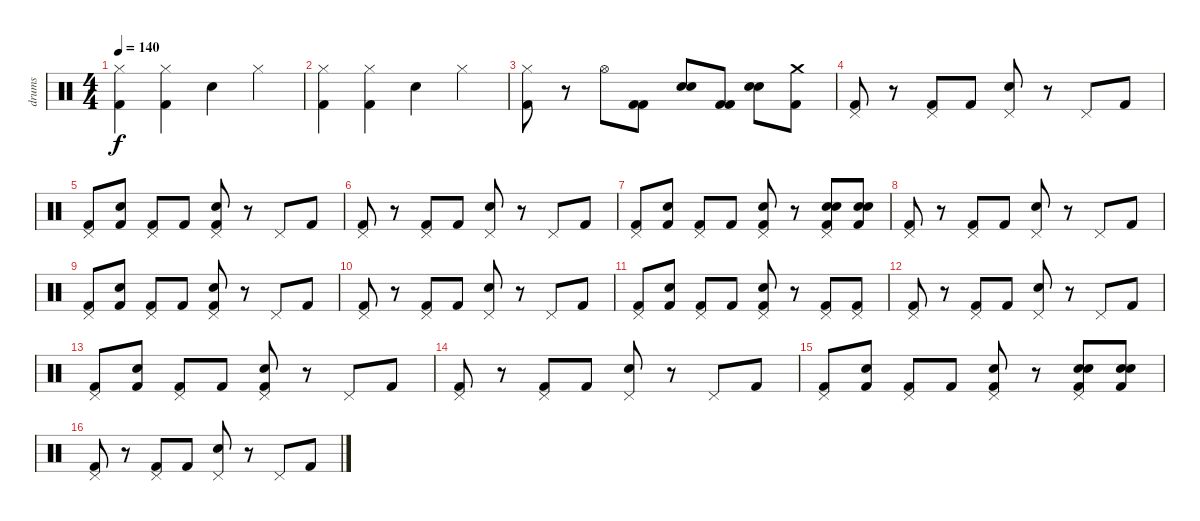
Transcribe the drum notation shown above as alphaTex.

\track ("drums" "drums") {instrument percussion}
\staff {score}
\articulation defaults
\ts (4 4)
\tempo 140
\clef neutral
\ks c
("Hi-Hat (closed)" "Kick (hit) 2").4{dy f} ("Hi-Hat (closed)" "Kick (hit) 2").4 "Snare (hit) 2".4 "Hi-Hat (closed)".4 |
("Hi-Hat (closed)" "Kick (hit) 2").4 ("Hi-Hat (closed)" "Kick (hit) 2").4 "Snare (hit) 2".4 "Hi-Hat (closed)".4 |
("Hi-Hat (closed)" "Kick (hit) 2").8 r.8 "Hi-Hat (open)".8 ("Kick (hit) 2" "Kick (hit) 2").8 ("Snare (hit) 2" "Snare (hit) 2").8 ("Kick (hit) 2" "Kick (hit) 2").8 ("Snare (hit) 2" "Snare (hit) 2").8 ("Kick (hit) 2" "Crash medium (hit)").8 |
("Pedal Hi-Hat (hit)" "Kick (hit) 2").8 r.8 ("Pedal Hi-Hat (hit)" "Kick (hit) 2").8 "Kick (hit) 2".8 ("Pedal Hi-Hat (hit)" "Snare (hit) 2").8 r.8 "Pedal Hi-Hat (hit)".8 "Kick (hit) 2".8 |
("Kick (hit) 2" "Pedal Hi-Hat (hit)").8 ("Snare (hit) 2" "Kick (hit) 2").8 ("Kick (hit) 2" "Pedal Hi-Hat (hit)").8 "Kick (hit) 2".8 ("Snare (hit) 2" "Kick (hit) 2" "Pedal Hi-Hat (hit)").8 r.8 "Pedal Hi-Hat (hit)".8 "Kick (hit) 2".8 |
("Pedal Hi-Hat (hit)" "Kick (hit) 2").8 r.8 ("Pedal Hi-Hat (hit)" "Kick (hit) 2").8 "Kick (hit) 2".8 ("Pedal Hi-Hat (hit)" "Snare (hit) 2").8 r.8 "Pedal Hi-Hat (hit)".8 "Kick (hit) 2".8 |
("Kick (hit) 2" "Pedal Hi-Hat (hit)").8 ("Snare (hit) 2" "Kick (hit) 2").8 ("Kick (hit) 2" "Pedal Hi-Hat (hit)").8 "Kick (hit) 2".8 ("Snare (hit) 2" "Kick (hit) 2" "Pedal Hi-Hat (hit)").8 r.8 ("Kick (hit) 2" "Snare (hit) 2" "Snare (hit) 2" "Pedal Hi-Hat (hit)").8 ("Kick (hit) 2" "Snare (hit) 2" "Snare (hit) 2").8 |
("Pedal Hi-Hat (hit)" "Kick (hit) 2").8 r.8 ("Pedal Hi-Hat (hit)" "Kick (hit) 2").8 "Kick (hit) 2".8 ("Pedal Hi-Hat (hit)" "Snare (hit) 2").8 r.8 "Pedal Hi-Hat (hit)".8 "Kick (hit) 2".8 |
("Kick (hit) 2" "Pedal Hi-Hat (hit)").8 ("Snare (hit) 2" "Kick (hit) 2").8 ("Kick (hit) 2" "Pedal Hi-Hat (hit)").8 "Kick (hit) 2".8 ("Snare (hit) 2" "Kick (hit) 2" "Pedal Hi-Hat (hit)").8 r.8 "Pedal Hi-Hat (hit)".8 "Kick (hit) 2".8 |
("Pedal Hi-Hat (hit)" "Kick (hit) 2").8 r.8 ("Pedal Hi-Hat (hit)" "Kick (hit) 2").8 "Kick (hit) 2".8 ("Pedal Hi-Hat (hit)" "Snare (hit) 2").8 r.8 "Pedal Hi-Hat (hit)".8 "Kick (hit) 2".8 |
("Kick (hit) 2" "Pedal Hi-Hat (hit)").8 ("Snare (hit) 2" "Kick (hit) 2").8 ("Kick (hit) 2" "Pedal Hi-Hat (hit)").8 "Kick (hit) 2".8 ("Snare (hit) 2" "Kick (hit) 2" "Pedal Hi-Hat (hit)").8 r.8 ("Kick (hit) 2" "Pedal Hi-Hat (hit)").8 ("Kick (hit) 2" "Pedal Hi-Hat (hit)").8 |
("Pedal Hi-Hat (hit)" "Kick (hit) 2").8 r.8 ("Pedal Hi-Hat (hit)" "Kick (hit) 2").8 "Kick (hit) 2".8 ("Pedal Hi-Hat (hit)" "Snare (hit) 2").8 r.8 "Pedal Hi-Hat (hit)".8 "Kick (hit) 2".8 |
("Kick (hit) 2" "Pedal Hi-Hat (hit)").8 ("Snare (hit) 2" "Kick (hit) 2").8 ("Kick (hit) 2" "Pedal Hi-Hat (hit)").8 "Kick (hit) 2".8 ("Snare (hit) 2" "Kick (hit) 2" "Pedal Hi-Hat (hit)").8 r.8 "Pedal Hi-Hat (hit)".8 "Kick (hit) 2".8 |
("Pedal Hi-Hat (hit)" "Kick (hit) 2").8 r.8 ("Pedal Hi-Hat (hit)" "Kick (hit) 2").8 "Kick (hit) 2".8 ("Pedal Hi-Hat (hit)" "Snare (hit) 2").8 r.8 "Pedal Hi-Hat (hit)".8 "Kick (hit) 2".8 |
("Kick (hit) 2" "Pedal Hi-Hat (hit)").8 ("Snare (hit) 2" "Kick (hit) 2").8 ("Kick (hit) 2" "Pedal Hi-Hat (hit)").8 "Kick (hit) 2".8 ("Snare (hit) 2" "Kick (hit) 2" "Pedal Hi-Hat (hit)").8 r.8 ("Kick (hit) 2" "Snare (hit) 2" "Snare (hit) 2" "Pedal Hi-Hat (hit)").8 ("Kick (hit) 2" "Snare (hit) 2" "Snare (hit) 2").8 |
("Pedal Hi-Hat (hit)" "Kick (hit) 2").8 r.8 ("Pedal Hi-Hat (hit)" "Kick (hit) 2").8 "Kick (hit) 2".8 ("Pedal Hi-Hat (hit)" "Snare (hit) 2").8 r.8 "Pedal Hi-Hat (hit)".8 "Kick (hit) 2".8
